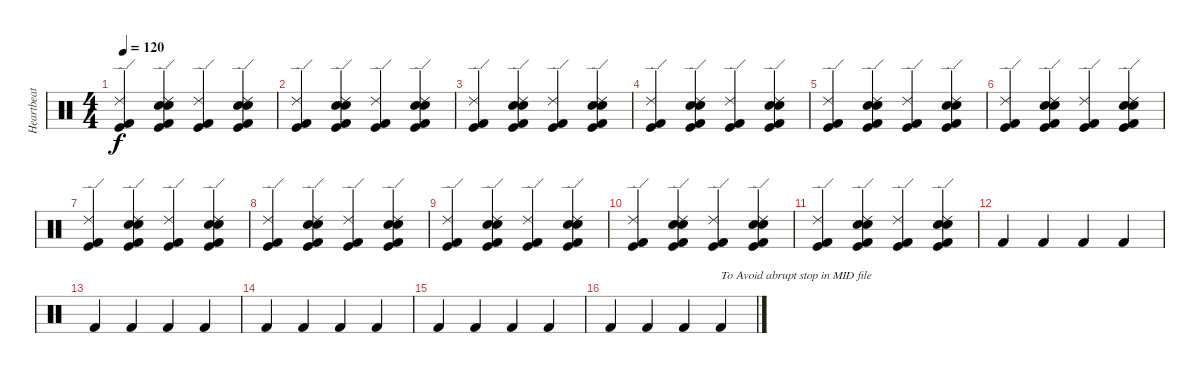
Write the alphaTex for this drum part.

\track ("Heartbeat" "Heartbeat") {instrument percussion}
\staff {score}
\articulation defaults
\ts (4 4)
\tempo 120
\clef neutral
\ks c
("Kick (hit)" "Kick (hit) 2" "Ride (edge) 2").4{dy f} ("Kick (hit)" "Kick (hit) 2" "Electric Snare (hit)" "Snare (hit) 2" "Ride (edge) 2").4 ("Kick (hit)" "Kick (hit) 2" "Ride (edge) 2").4 ("Kick (hit)" "Kick (hit) 2" "Electric Snare (hit)" "Snare (hit) 2" "Ride (edge) 2").4 |
("Kick (hit)" "Kick (hit) 2" "Ride (edge) 2").4 ("Kick (hit)" "Kick (hit) 2" "Electric Snare (hit)" "Snare (hit) 2" "Ride (edge) 2").4 ("Kick (hit)" "Kick (hit) 2" "Ride (edge) 2").4 ("Kick (hit)" "Kick (hit) 2" "Electric Snare (hit)" "Snare (hit) 2" "Ride (edge) 2").4 |
("Kick (hit)" "Kick (hit) 2" "Ride (edge) 2").4 ("Kick (hit)" "Kick (hit) 2" "Electric Snare (hit)" "Snare (hit) 2" "Ride (edge) 2").4 ("Kick (hit)" "Kick (hit) 2" "Ride (edge) 2").4 ("Kick (hit)" "Kick (hit) 2" "Electric Snare (hit)" "Snare (hit) 2" "Ride (edge) 2").4 |
("Kick (hit)" "Kick (hit) 2" "Ride (edge) 2").4 ("Kick (hit)" "Kick (hit) 2" "Electric Snare (hit)" "Snare (hit) 2" "Ride (edge) 2").4 ("Kick (hit)" "Kick (hit) 2" "Ride (edge) 2").4 ("Kick (hit)" "Kick (hit) 2" "Electric Snare (hit)" "Snare (hit) 2" "Ride (edge) 2").4 |
("Kick (hit)" "Kick (hit) 2" "Ride (edge) 2").4 ("Kick (hit)" "Kick (hit) 2" "Electric Snare (hit)" "Snare (hit) 2" "Ride (edge) 2").4 ("Kick (hit)" "Kick (hit) 2" "Ride (edge) 2").4 ("Kick (hit)" "Kick (hit) 2" "Electric Snare (hit)" "Snare (hit) 2" "Ride (edge) 2").4 |
("Kick (hit)" "Kick (hit) 2" "Ride (edge) 2").4 ("Kick (hit)" "Kick (hit) 2" "Electric Snare (hit)" "Snare (hit) 2" "Ride (edge) 2").4 ("Kick (hit)" "Kick (hit) 2" "Ride (edge) 2").4 ("Kick (hit)" "Kick (hit) 2" "Electric Snare (hit)" "Snare (hit) 2" "Ride (edge) 2").4 |
("Kick (hit)" "Kick (hit) 2" "Ride (edge) 2").4 ("Kick (hit)" "Kick (hit) 2" "Electric Snare (hit)" "Snare (hit) 2" "Ride (edge) 2").4 ("Kick (hit)" "Kick (hit) 2" "Ride (edge) 2").4 ("Kick (hit)" "Kick (hit) 2" "Electric Snare (hit)" "Snare (hit) 2" "Ride (edge) 2").4 |
("Kick (hit)" "Kick (hit) 2" "Ride (edge) 2").4 ("Kick (hit)" "Kick (hit) 2" "Electric Snare (hit)" "Snare (hit) 2" "Ride (edge) 2").4 ("Kick (hit)" "Kick (hit) 2" "Ride (edge) 2").4 ("Kick (hit)" "Kick (hit) 2" "Electric Snare (hit)" "Snare (hit) 2" "Ride (edge) 2").4 |
("Kick (hit)" "Kick (hit) 2" "Ride (edge) 2").4 ("Kick (hit)" "Kick (hit) 2" "Electric Snare (hit)" "Snare (hit) 2" "Ride (edge) 2").4 ("Kick (hit)" "Kick (hit) 2" "Ride (edge) 2").4 ("Kick (hit)" "Kick (hit) 2" "Electric Snare (hit)" "Snare (hit) 2" "Ride (edge) 2").4 |
("Kick (hit)" "Kick (hit) 2" "Ride (edge) 2").4 ("Kick (hit)" "Kick (hit) 2" "Electric Snare (hit)" "Snare (hit) 2" "Ride (edge) 2").4 ("Kick (hit)" "Kick (hit) 2" "Ride (edge) 2").4 ("Kick (hit)" "Kick (hit) 2" "Electric Snare (hit)" "Snare (hit) 2" "Ride (edge) 2").4 |
("Kick (hit)" "Kick (hit) 2" "Ride (edge) 2").4 ("Kick (hit)" "Kick (hit) 2" "Electric Snare (hit)" "Snare (hit) 2" "Ride (edge) 2").4 ("Kick (hit)" "Kick (hit) 2" "Ride (edge) 2").4 ("Kick (hit)" "Kick (hit) 2" "Electric Snare (hit)" "Snare (hit) 2" "Ride (edge) 2").4 |
"Kick (hit) 2".4 "Kick (hit) 2".4 "Kick (hit) 2".4 "Kick (hit) 2".4 |
"Kick (hit) 2".4 "Kick (hit) 2".4 "Kick (hit) 2".4 "Kick (hit) 2".4 |
"Kick (hit) 2".4 "Kick (hit) 2".4 "Kick (hit) 2".4 "Kick (hit) 2".4 |
"Kick (hit) 2".4 "Kick (hit) 2".4 "Kick (hit) 2".4 "Kick (hit) 2".4 |
"Kick (hit) 2".4 "Kick (hit) 2".4 "Kick (hit) 2".4 "Kick (hit) 2".4{txt "To Avoid abrupt stop in MID file"}
